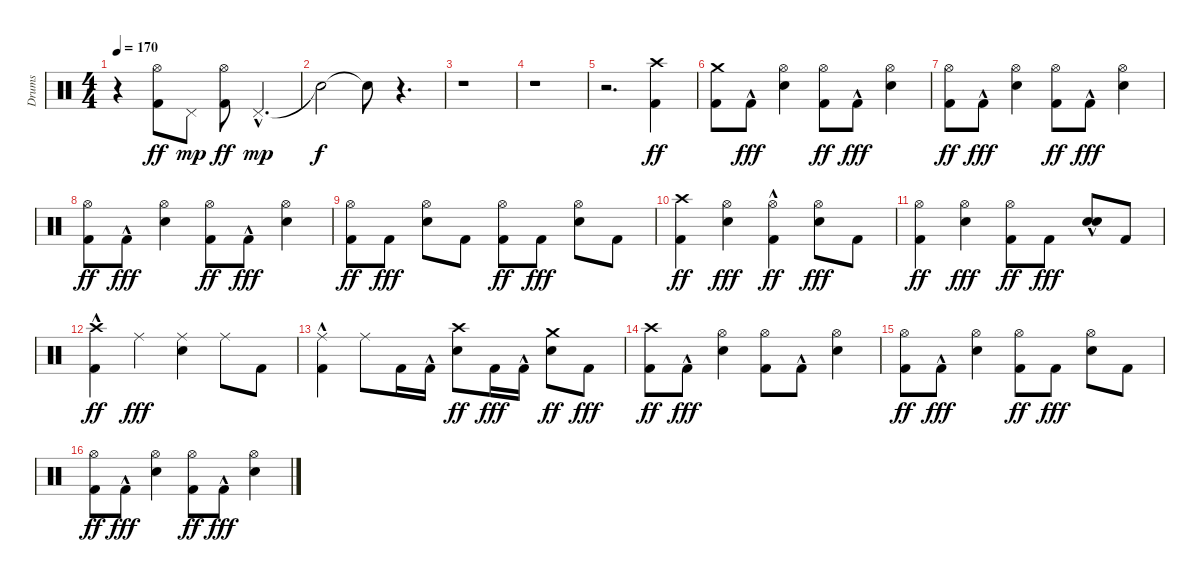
\track ("Drums" "Drums") {instrument percussion}
\staff {score}
\articulation defaults
\ts (4 4)
\tempo 170
\clef neutral
\ks c
r.4{dy f} ("Kick (hit) 2" "Hi-Hat (open)").8{dy ff} "Pedal Hi-Hat (hit)".8{dy mp} ("Kick (hit) 2" "Hi-Hat (open)").8{dy ff} "Pedal Hi-Hat (hit)"{hac}.4{d dy mp} |
"Snare (hit)"{t}.2{dy f} "Snare (hit)"{t}.8 r.4{d} |
r.1 |
r.1 |
r.2{d} ("Kick (hit) 2" "Crash high (hit)").4{dy ff} |
("Kick (hit) 2" "Crash medium (hit)").8 "Kick (hit) 2"{hac}.8{dy fff} ("Snare (hit) 2" "Hi-Hat (open)").4 ("Kick (hit) 2" "Hi-Hat (open)").8{dy ff} "Kick (hit) 2"{hac}.8{dy fff} ("Snare (hit) 2" "Hi-Hat (open)").4 |
("Kick (hit) 2" "Hi-Hat (open)").8{dy ff} "Kick (hit) 2"{hac}.8{dy fff} ("Snare (hit) 2" "Hi-Hat (open)").4 ("Kick (hit) 2" "Hi-Hat (open)").8{dy ff} "Kick (hit) 2"{hac}.8{dy fff} ("Snare (hit) 2" "Hi-Hat (open)").4 |
("Kick (hit) 2" "Hi-Hat (open)").8{dy ff} "Kick (hit) 2"{hac}.8{dy fff} ("Snare (hit) 2" "Hi-Hat (open)").4 ("Kick (hit) 2" "Hi-Hat (open)").8{dy ff} "Kick (hit) 2"{hac}.8{dy fff} ("Snare (hit) 2" "Hi-Hat (open)").4 |
("Kick (hit) 2" "Hi-Hat (open)").8{dy ff} "Kick (hit) 2".8{dy fff} ("Snare (hit) 2" "Hi-Hat (open)").8 "Kick (hit) 2".8 ("Kick (hit) 2" "Hi-Hat (open)").8{dy ff} "Kick (hit) 2".8{dy fff} ("Snare (hit) 2" "Hi-Hat (open)").8 "Kick (hit) 2".8 |
("Kick (hit) 2" "Crash high (hit)").4{dy ff} ("Snare (hit) 2" "Hi-Hat (open)").4{dy fff} ("Kick (hit) 2"{hac} "Hi-Hat (open)").4{dy ff} ("Snare (hit) 2" "Hi-Hat (open)").8{dy fff} "Kick (hit) 2".8 |
("Kick (hit) 2" "Hi-Hat (open)").4{dy ff} ("Snare (hit) 2" "Hi-Hat (open)").4{dy fff} ("Kick (hit) 2" "Hi-Hat (open)").8{dy ff} "Kick (hit) 2".8{dy fff} ("Snare (hit) 2" "Snare (hit) 2"{hac}).8 "Kick (hit) 2".8 |
("Kick (hit) 2"{hac} "Crash high (hit)").4{dy ff} "Ride (middle)".4{dy fff} ("Snare (hit) 2" "Ride (middle)").4 "Ride (middle)".8 "Kick (hit) 2".8 |
("Kick (hit) 2"{hac} "Ride (middle)").4 "Ride (middle)".8 "Kick (hit) 2".16 "Kick (hit) 2"{hac}.16 ("Snare (hit) 2" "Crash high (hit)").8{dy ff} "Kick (hit) 2".16{dy fff} "Kick (hit) 2"{hac}.16 ("Snare (hit) 2" "Crash medium (hit)").8{dy ff} "Kick (hit) 2".8{dy fff} |
("Kick (hit) 2" "Crash high (hit)").8{dy ff} "Kick (hit) 2"{hac}.8{dy fff} ("Snare (hit) 2" "Hi-Hat (open)").4 ("Kick (hit) 2" "Hi-Hat (open)").8 "Kick (hit) 2"{hac}.8 ("Snare (hit) 2" "Hi-Hat (open)").4 |
("Kick (hit) 2" "Hi-Hat (open)").8{dy ff} "Kick (hit) 2"{hac}.8{dy fff} ("Snare (hit) 2" "Hi-Hat (open)").4 ("Kick (hit) 2" "Hi-Hat (open)").8{dy ff} "Kick (hit) 2".8{dy fff} ("Snare (hit) 2" "Hi-Hat (open)").8 "Kick (hit) 2".8 |
("Kick (hit) 2" "Hi-Hat (open)").8{dy ff} "Kick (hit) 2"{hac}.8{dy fff} ("Snare (hit) 2" "Hi-Hat (open)").4 ("Kick (hit) 2" "Hi-Hat (open)").8{dy ff} "Kick (hit) 2"{hac}.8{dy fff} ("Snare (hit) 2" "Hi-Hat (open)").4
